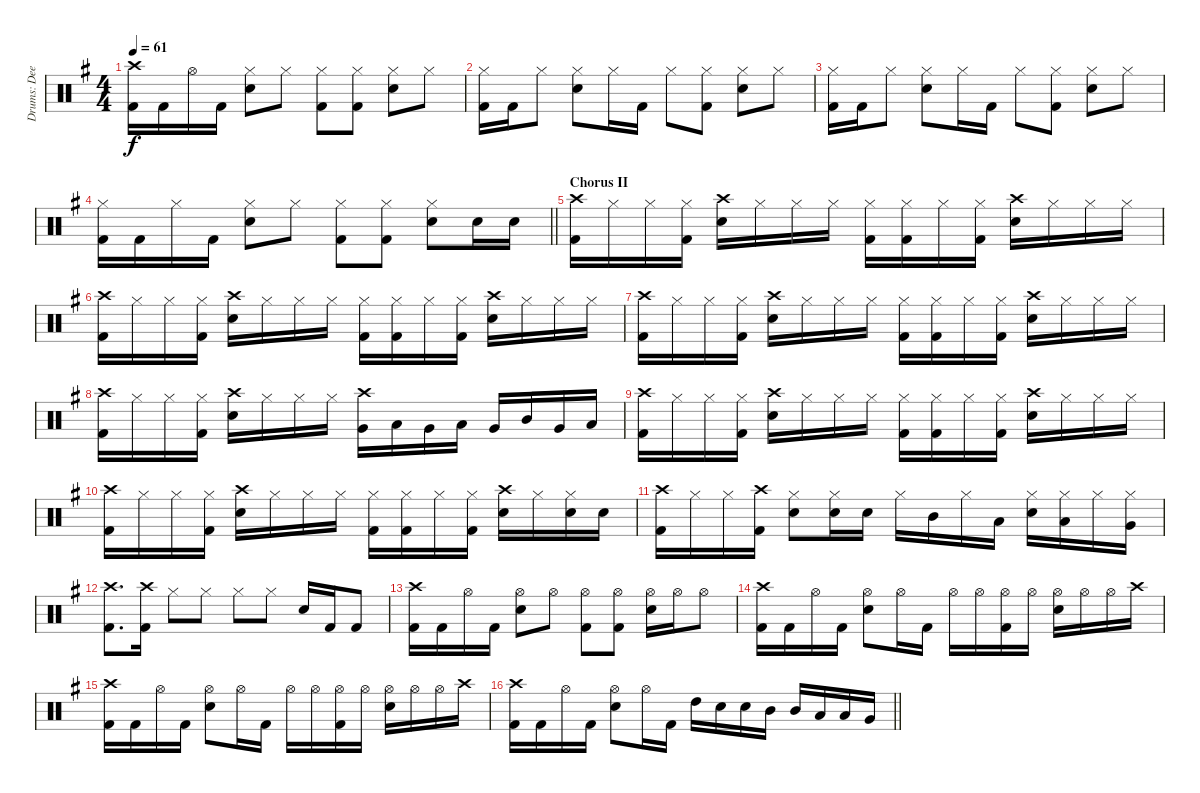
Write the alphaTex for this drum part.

\track ("Drums: Deen" "Drums: Dee") {instrument percussion}
\staff {score}
\articulation defaults
\ts (4 4)
\tempo 61
\clef neutral
\ks g
("Crash high (hit)" "Kick (hit) 2").16{dy f} "Kick (hit) 2".16 "Hi-Hat (open)".16 "Kick (hit) 2".16 ("Hi-Hat (closed)" "Electric Snare (hit)").8 "Hi-Hat (closed)".8 ("Hi-Hat (closed)" "Kick (hit) 2").8 ("Hi-Hat (closed)" "Kick (hit) 2").8 ("Hi-Hat (closed)" "Electric Snare (hit)").8 "Hi-Hat (closed)".8 |
("Hi-Hat (closed)" "Kick (hit) 2").16 "Kick (hit) 2".16 "Hi-Hat (closed)".8 ("Hi-Hat (closed)" "Electric Snare (hit)").8 "Hi-Hat (closed)".16 "Kick (hit) 2".16 "Hi-Hat (closed)".8 ("Hi-Hat (closed)" "Kick (hit) 2").8 ("Hi-Hat (closed)" "Electric Snare (hit)").8 "Hi-Hat (closed)".8 |
("Hi-Hat (closed)" "Kick (hit) 2").16 "Kick (hit) 2".16 "Hi-Hat (closed)".8 ("Hi-Hat (closed)" "Electric Snare (hit)").8 "Hi-Hat (closed)".16 "Kick (hit) 2".16 "Hi-Hat (closed)".8 ("Hi-Hat (closed)" "Kick (hit) 2").8 ("Hi-Hat (closed)" "Electric Snare (hit)").8 "Hi-Hat (closed)".8 |
\barLineRight lightlight
("Hi-Hat (closed)" "Kick (hit) 2").16 "Kick (hit) 2".16 "Hi-Hat (closed)".16 "Kick (hit) 2".16 ("Hi-Hat (closed)" "Electric Snare (hit)").8 "Hi-Hat (closed)".8 ("Hi-Hat (closed)" "Kick (hit) 2").8 ("Hi-Hat (closed)" "Kick (hit) 2").8 ("Hi-Hat (closed)" "Electric Snare (hit)").8 "Electric Snare (hit)".16 "Electric Snare (hit)".16 |
\section ("" "Chorus II")
("Crash high (hit)" "Kick (hit) 2").16 "Hi-Hat (closed)".16 "Hi-Hat (closed)".16 ("Hi-Hat (closed)" "Kick (hit) 2").16 ("Crash high (hit)" "Electric Snare (hit)").16 "Hi-Hat (closed)".16 "Hi-Hat (closed)".16 "Hi-Hat (closed)".16 ("Hi-Hat (closed)" "Kick (hit) 2").16 ("Hi-Hat (closed)" "Kick (hit) 2").16 "Hi-Hat (closed)".16 ("Hi-Hat (closed)" "Kick (hit) 2").16 ("Crash high (hit)" "Electric Snare (hit)").16 "Hi-Hat (closed)".16 "Hi-Hat (closed)".16 "Hi-Hat (closed)".16 |
("Crash high (hit)" "Kick (hit) 2").16 "Hi-Hat (closed)".16 "Hi-Hat (closed)".16 ("Hi-Hat (closed)" "Kick (hit) 2").16 ("Crash high (hit)" "Electric Snare (hit)").16 "Hi-Hat (closed)".16 "Hi-Hat (closed)".16 "Hi-Hat (closed)".16 ("Hi-Hat (closed)" "Kick (hit) 2").16 ("Hi-Hat (closed)" "Kick (hit) 2").16 "Hi-Hat (closed)".16 ("Hi-Hat (closed)" "Kick (hit) 2").16 ("Crash high (hit)" "Electric Snare (hit)").16 "Hi-Hat (closed)".16 "Hi-Hat (closed)".16 "Hi-Hat (closed)".16 |
("Crash high (hit)" "Kick (hit) 2").16 "Hi-Hat (closed)".16 "Hi-Hat (closed)".16 ("Hi-Hat (closed)" "Kick (hit) 2").16 ("Crash high (hit)" "Electric Snare (hit)").16 "Hi-Hat (closed)".16 "Hi-Hat (closed)".16 "Hi-Hat (closed)".16 ("Hi-Hat (closed)" "Kick (hit) 2").16 ("Hi-Hat (closed)" "Kick (hit) 2").16 "Hi-Hat (closed)".16 ("Hi-Hat (closed)" "Kick (hit) 2").16 ("Crash high (hit)" "Electric Snare (hit)").16 "Hi-Hat (closed)".16 "Hi-Hat (closed)".16 "Hi-Hat (closed)".16 |
("Crash high (hit)" "Kick (hit) 2").16 "Hi-Hat (closed)".16 "Hi-Hat (closed)".16 ("Hi-Hat (closed)" "Kick (hit) 2").16 ("Crash high (hit)" "Electric Snare (hit)").16 "Hi-Hat (closed)".16 "Hi-Hat (closed)".16 "Hi-Hat (closed)".16 ("Crash high (hit)" "Very Low Tom (hit)").16 "Low Tom (hit)".16 "Very Low Tom (hit)".16 "Low Tom (hit)".16 "Very Low Tom (hit)".16 "Mid Tom (hit)".16 "Very Low Tom (hit)".16 "Low Tom (hit)".16 |
("Crash high (hit)" "Kick (hit) 2").16 "Hi-Hat (closed)".16 "Hi-Hat (closed)".16 ("Hi-Hat (closed)" "Kick (hit) 2").16 ("Crash high (hit)" "Electric Snare (hit)").16 "Hi-Hat (closed)".16 "Hi-Hat (closed)".16 "Hi-Hat (closed)".16 ("Hi-Hat (closed)" "Kick (hit) 2").16 ("Hi-Hat (closed)" "Kick (hit) 2").16 "Hi-Hat (closed)".16 ("Hi-Hat (closed)" "Kick (hit) 2").16 ("Crash high (hit)" "Electric Snare (hit)").16 "Hi-Hat (closed)".16 "Hi-Hat (closed)".16 "Hi-Hat (closed)".16 |
("Crash high (hit)" "Kick (hit) 2").16 "Hi-Hat (closed)".16 "Hi-Hat (closed)".16 ("Hi-Hat (closed)" "Kick (hit) 2").16 ("Crash high (hit)" "Electric Snare (hit)").16 "Hi-Hat (closed)".16 "Hi-Hat (closed)".16 "Hi-Hat (closed)".16 ("Hi-Hat (closed)" "Kick (hit) 2").16 ("Hi-Hat (closed)" "Kick (hit) 2").16 "Hi-Hat (closed)".16 ("Hi-Hat (closed)" "Kick (hit) 2").16 ("Crash high (hit)" "Electric Snare (hit)").16 "Hi-Hat (closed)".16 ("Hi-Hat (closed)" "Electric Snare (hit)").16 "Electric Snare (hit)".16 |
("Crash high (hit)" "Kick (hit) 2").16 "Hi-Hat (closed)".16 "Hi-Hat (closed)".16 ("Crash high (hit)" "Kick (hit) 2").16 ("Hi-Hat (closed)" "Electric Snare (hit)").8 ("Hi-Hat (closed)" "Electric Snare (hit)").16 "Electric Snare (hit)".16 "Hi-Hat (closed)".16 "Mid Tom (hit)".16 "Hi-Hat (closed)".16 "Low Tom (hit)".16 ("Hi-Hat (closed)" "Electric Snare (hit)").16 ("Hi-Hat (closed)" "Low Tom (hit)").16 "Hi-Hat (closed)".16 ("Hi-Hat (closed)" "Very Low Tom (hit)").16 |
("Crash high (hit)" "Kick (hit) 2").8{d} ("Crash high (hit)" "Kick (hit) 2").16 "Hi-Hat (closed)".8 "Hi-Hat (closed)".8 "Hi-Hat (closed)".8 "Hi-Hat (closed)".8 "Electric Snare (hit)".16 "Kick (hit) 2".16 "Kick (hit) 2".8 |
("Crash high (hit)" "Kick (hit) 2").16 "Kick (hit) 2".16 "Hi-Hat (open)".16 "Kick (hit) 2".16 ("Hi-Hat (open)" "Electric Snare (hit)").8 "Hi-Hat (open)".8 ("Hi-Hat (open)" "Kick (hit) 2").8 ("Hi-Hat (open)" "Kick (hit) 2").8 ("Hi-Hat (open)" "Electric Snare (hit)").16 "Hi-Hat (open)".16 "Hi-Hat (open)".8 |
("Crash high (hit)" "Kick (hit) 2").16 "Kick (hit) 2".16 "Hi-Hat (open)".16 "Kick (hit) 2".16 ("Hi-Hat (open)" "Electric Snare (hit)").8 "Hi-Hat (open)".16 "Kick (hit) 2".16 "Hi-Hat (open)".16 "Hi-Hat (open)".16 ("Hi-Hat (open)" "Kick (hit) 2").16 "Hi-Hat (open)".16 ("Hi-Hat (open)" "Electric Snare (hit)").16 "Hi-Hat (open)".16 "Hi-Hat (open)".16 "Crash high (hit)".16 |
("Crash high (hit)" "Kick (hit) 2").16 "Kick (hit) 2".16 "Hi-Hat (open)".16 "Kick (hit) 2".16 ("Hi-Hat (open)" "Electric Snare (hit)").8 "Hi-Hat (open)".16 "Kick (hit) 2".16 "Hi-Hat (open)".16 "Hi-Hat (open)".16 ("Hi-Hat (open)" "Kick (hit) 2").16 "Hi-Hat (open)".16 ("Hi-Hat (open)" "Electric Snare (hit)").16 "Hi-Hat (open)".16 "Hi-Hat (open)".16 "Crash high (hit)".16 |
\barLineRight lightlight
("Crash high (hit)" "Kick (hit) 2").16 "Kick (hit) 2".16 "Hi-Hat (open)".16 "Kick (hit) 2".16 ("Hi-Hat (open)" "Electric Snare (hit)").8 "Hi-Hat (open)".16 "Kick (hit) 2".16 "High Tom (hit)".16 "Electric Snare (hit)".16 "Electric Snare (hit)".16 "Mid Tom (hit)".16 "Mid Tom (hit)".16 "Low Tom (hit)".16 "Low Tom (hit)".16 "Very Low Tom (hit)".16
